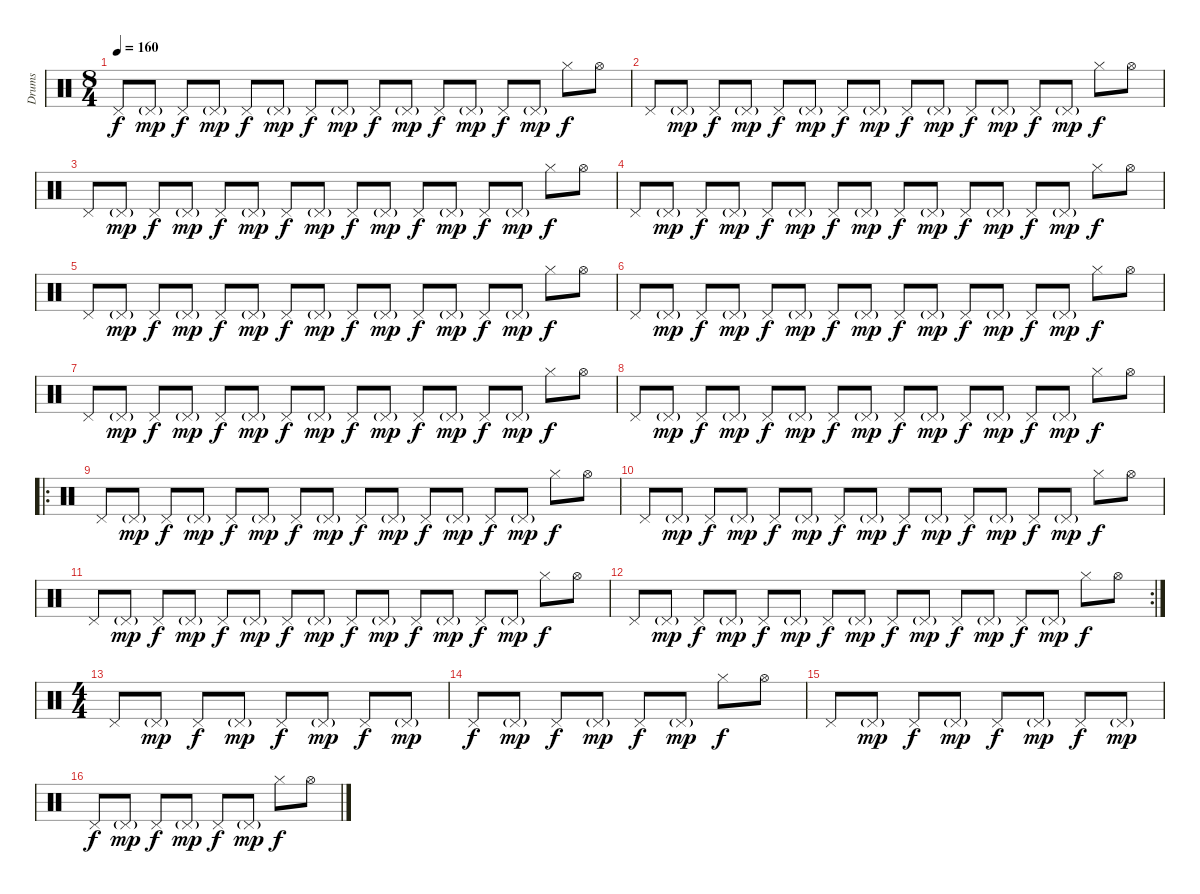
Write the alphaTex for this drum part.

\track ("Drums" "Drums") {instrument percussion}
\staff {score}
\articulation defaults
\ts (8 4)
\tempo 160
\clef neutral
\ks c "Pedal Hi-Hat (hit)".8{dy f} "Pedal Hi-Hat (hit)"{g}.8{dy mp} "Pedal Hi-Hat (hit)".8{dy f} "Pedal Hi-Hat (hit)"{g}.8{dy mp} "Pedal Hi-Hat (hit)".8{dy f} "Pedal Hi-Hat (hit)"{g}.8{dy mp} "Pedal Hi-Hat (hit)".8{dy f} "Pedal Hi-Hat (hit)"{g}.8{dy mp} "Pedal Hi-Hat (hit)".8{dy f} "Pedal Hi-Hat (hit)"{g}.8{dy mp} "Pedal Hi-Hat (hit)".8{dy f} "Pedal Hi-Hat (hit)"{g}.8{dy mp} "Pedal Hi-Hat (hit)".8{dy f} "Pedal Hi-Hat (hit)"{g}.8{dy mp} "Hi-Hat (closed)".8{dy f} "Hi-Hat (open)".8
|
"Pedal Hi-Hat (hit)".8 "Pedal Hi-Hat (hit)"{g}.8{dy mp} "Pedal Hi-Hat (hit)".8{dy f} "Pedal Hi-Hat (hit)"{g}.8{dy mp} "Pedal Hi-Hat (hit)".8{dy f} "Pedal Hi-Hat (hit)"{g}.8{dy mp} "Pedal Hi-Hat (hit)".8{dy f} "Pedal Hi-Hat (hit)"{g}.8{dy mp} "Pedal Hi-Hat (hit)".8{dy f} "Pedal Hi-Hat (hit)"{g}.8{dy mp} "Pedal Hi-Hat (hit)".8{dy f} "Pedal Hi-Hat (hit)"{g}.8{dy mp} "Pedal Hi-Hat (hit)".8{dy f} "Pedal Hi-Hat (hit)"{g}.8{dy mp} "Hi-Hat (closed)".8{dy f} "Hi-Hat (open)".8 |
"Pedal Hi-Hat (hit)".8 "Pedal Hi-Hat (hit)"{g}.8{dy mp} "Pedal Hi-Hat (hit)".8{dy f} "Pedal Hi-Hat (hit)"{g}.8{dy mp} "Pedal Hi-Hat (hit)".8{dy f} "Pedal Hi-Hat (hit)"{g}.8{dy mp} "Pedal Hi-Hat (hit)".8{dy f} "Pedal Hi-Hat (hit)"{g}.8{dy mp} "Pedal Hi-Hat (hit)".8{dy f} "Pedal Hi-Hat (hit)"{g}.8{dy mp} "Pedal Hi-Hat (hit)".8{dy f} "Pedal Hi-Hat (hit)"{g}.8{dy mp} "Pedal Hi-Hat (hit)".8{dy f} "Pedal Hi-Hat (hit)"{g}.8{dy mp} "Hi-Hat (closed)".8{dy f} "Hi-Hat (open)".8 |
"Pedal Hi-Hat (hit)".8 "Pedal Hi-Hat (hit)"{g}.8{dy mp} "Pedal Hi-Hat (hit)".8{dy f} "Pedal Hi-Hat (hit)"{g}.8{dy mp} "Pedal Hi-Hat (hit)".8{dy f} "Pedal Hi-Hat (hit)"{g}.8{dy mp} "Pedal Hi-Hat (hit)".8{dy f} "Pedal Hi-Hat (hit)"{g}.8{dy mp} "Pedal Hi-Hat (hit)".8{dy f} "Pedal Hi-Hat (hit)"{g}.8{dy mp} "Pedal Hi-Hat (hit)".8{dy f} "Pedal Hi-Hat (hit)"{g}.8{dy mp} "Pedal Hi-Hat (hit)".8{dy f} "Pedal Hi-Hat (hit)"{g}.8{dy mp} "Hi-Hat (closed)".8{dy f} "Hi-Hat (open)".8 |
"Pedal Hi-Hat (hit)".8 "Pedal Hi-Hat (hit)"{g}.8{dy mp} "Pedal Hi-Hat (hit)".8{dy f} "Pedal Hi-Hat (hit)"{g}.8{dy mp} "Pedal Hi-Hat (hit)".8{dy f} "Pedal Hi-Hat (hit)"{g}.8{dy mp} "Pedal Hi-Hat (hit)".8{dy f} "Pedal Hi-Hat (hit)"{g}.8{dy mp} "Pedal Hi-Hat (hit)".8{dy f} "Pedal Hi-Hat (hit)"{g}.8{dy mp} "Pedal Hi-Hat (hit)".8{dy f} "Pedal Hi-Hat (hit)"{g}.8{dy mp} "Pedal Hi-Hat (hit)".8{dy f} "Pedal Hi-Hat (hit)"{g}.8{dy mp} "Hi-Hat (closed)".8{dy f} "Hi-Hat (open)".8 |
"Pedal Hi-Hat (hit)".8 "Pedal Hi-Hat (hit)"{g}.8{dy mp} "Pedal Hi-Hat (hit)".8{dy f} "Pedal Hi-Hat (hit)"{g}.8{dy mp} "Pedal Hi-Hat (hit)".8{dy f} "Pedal Hi-Hat (hit)"{g}.8{dy mp} "Pedal Hi-Hat (hit)".8{dy f} "Pedal Hi-Hat (hit)"{g}.8{dy mp} "Pedal Hi-Hat (hit)".8{dy f} "Pedal Hi-Hat (hit)"{g}.8{dy mp} "Pedal Hi-Hat (hit)".8{dy f} "Pedal Hi-Hat (hit)"{g}.8{dy mp} "Pedal Hi-Hat (hit)".8{dy f} "Pedal Hi-Hat (hit)"{g}.8{dy mp} "Hi-Hat (closed)".8{dy f} "Hi-Hat (open)".8 |
"Pedal Hi-Hat (hit)".8 "Pedal Hi-Hat (hit)"{g}.8{dy mp} "Pedal Hi-Hat (hit)".8{dy f} "Pedal Hi-Hat (hit)"{g}.8{dy mp} "Pedal Hi-Hat (hit)".8{dy f} "Pedal Hi-Hat (hit)"{g}.8{dy mp} "Pedal Hi-Hat (hit)".8{dy f} "Pedal Hi-Hat (hit)"{g}.8{dy mp} "Pedal Hi-Hat (hit)".8{dy f} "Pedal Hi-Hat (hit)"{g}.8{dy mp} "Pedal Hi-Hat (hit)".8{dy f} "Pedal Hi-Hat (hit)"{g}.8{dy mp} "Pedal Hi-Hat (hit)".8{dy f} "Pedal Hi-Hat (hit)"{g}.8{dy mp} "Hi-Hat (closed)".8{dy f} "Hi-Hat (open)".8 |
"Pedal Hi-Hat (hit)".8 "Pedal Hi-Hat (hit)"{g}.8{dy mp} "Pedal Hi-Hat (hit)".8{dy f} "Pedal Hi-Hat (hit)"{g}.8{dy mp} "Pedal Hi-Hat (hit)".8{dy f} "Pedal Hi-Hat (hit)"{g}.8{dy mp} "Pedal Hi-Hat (hit)".8{dy f} "Pedal Hi-Hat (hit)"{g}.8{dy mp} "Pedal Hi-Hat (hit)".8{dy f} "Pedal Hi-Hat (hit)"{g}.8{dy mp} "Pedal Hi-Hat (hit)".8{dy f} "Pedal Hi-Hat (hit)"{g}.8{dy mp} "Pedal Hi-Hat (hit)".8{dy f} "Pedal Hi-Hat (hit)"{g}.8{dy mp} "Hi-Hat (closed)".8{dy f} "Hi-Hat (open)".8 |
\ro "Pedal Hi-Hat (hit)".8 "Pedal Hi-Hat (hit)"{g}.8{dy mp} "Pedal Hi-Hat (hit)".8{dy f} "Pedal Hi-Hat (hit)"{g}.8{dy mp} "Pedal Hi-Hat (hit)".8{dy f} "Pedal Hi-Hat (hit)"{g}.8{dy mp} "Pedal Hi-Hat (hit)".8{dy f} "Pedal Hi-Hat (hit)"{g}.8{dy mp} "Pedal Hi-Hat (hit)".8{dy f} "Pedal Hi-Hat (hit)"{g}.8{dy mp} "Pedal Hi-Hat (hit)".8{dy f} "Pedal Hi-Hat (hit)"{g}.8{dy mp} "Pedal Hi-Hat (hit)".8{dy f} "Pedal Hi-Hat (hit)"{g}.8{dy mp} "Hi-Hat (closed)".8{dy f} "Hi-Hat (open)".8
|
"Pedal Hi-Hat (hit)".8 "Pedal Hi-Hat (hit)"{g}.8{dy mp} "Pedal Hi-Hat (hit)".8{dy f} "Pedal Hi-Hat (hit)"{g}.8{dy mp} "Pedal Hi-Hat (hit)".8{dy f} "Pedal Hi-Hat (hit)"{g}.8{dy mp} "Pedal Hi-Hat (hit)".8{dy f} "Pedal Hi-Hat (hit)"{g}.8{dy mp} "Pedal Hi-Hat (hit)".8{dy f} "Pedal Hi-Hat (hit)"{g}.8{dy mp} "Pedal Hi-Hat (hit)".8{dy f} "Pedal Hi-Hat (hit)"{g}.8{dy mp} "Pedal Hi-Hat (hit)".8{dy f} "Pedal Hi-Hat (hit)"{g}.8{dy mp} "Hi-Hat (closed)".8{dy f} "Hi-Hat (open)".8 |
"Pedal Hi-Hat (hit)".8 "Pedal Hi-Hat (hit)"{g}.8{dy mp} "Pedal Hi-Hat (hit)".8{dy f} "Pedal Hi-Hat (hit)"{g}.8{dy mp} "Pedal Hi-Hat (hit)".8{dy f} "Pedal Hi-Hat (hit)"{g}.8{dy mp} "Pedal Hi-Hat (hit)".8{dy f} "Pedal Hi-Hat (hit)"{g}.8{dy mp} "Pedal Hi-Hat (hit)".8{dy f} "Pedal Hi-Hat (hit)"{g}.8{dy mp} "Pedal Hi-Hat (hit)".8{dy f} "Pedal Hi-Hat (hit)"{g}.8{dy mp} "Pedal Hi-Hat (hit)".8{dy f} "Pedal Hi-Hat (hit)"{g}.8{dy mp} "Hi-Hat (closed)".8{dy f} "Hi-Hat (open)".8 |
\rc 2 "Pedal Hi-Hat (hit)".8 "Pedal Hi-Hat (hit)"{g}.8{dy mp} "Pedal Hi-Hat (hit)".8{dy f} "Pedal Hi-Hat (hit)"{g}.8{dy mp} "Pedal Hi-Hat (hit)".8{dy f} "Pedal Hi-Hat (hit)"{g}.8{dy mp} "Pedal Hi-Hat (hit)".8{dy f} "Pedal Hi-Hat (hit)"{g}.8{dy mp} "Pedal Hi-Hat (hit)".8{dy f} "Pedal Hi-Hat (hit)"{g}.8{dy mp} "Pedal Hi-Hat (hit)".8{dy f} "Pedal Hi-Hat (hit)"{g}.8{dy mp} "Pedal Hi-Hat (hit)".8{dy f} "Pedal Hi-Hat (hit)"{g}.8{dy mp} "Hi-Hat (closed)".8{dy f} "Hi-Hat (open)".8
|
\ts (4 4)
"Pedal Hi-Hat (hit)".8 "Pedal Hi-Hat (hit)"{g}.8{dy mp} "Pedal Hi-Hat (hit)".8{dy f} "Pedal Hi-Hat (hit)"{g}.8{dy mp} "Pedal Hi-Hat (hit)".8{dy f} "Pedal Hi-Hat (hit)"{g}.8{dy mp} "Pedal Hi-Hat (hit)".8{dy f} "Pedal Hi-Hat (hit)"{g}.8{dy mp} |
"Pedal Hi-Hat (hit)".8{dy f} "Pedal Hi-Hat (hit)"{g}.8{dy mp} "Pedal Hi-Hat (hit)".8{dy f} "Pedal Hi-Hat (hit)"{g}.8{dy mp} "Pedal Hi-Hat (hit)".8{dy f} "Pedal Hi-Hat (hit)"{g}.8{dy mp} "Hi-Hat (closed)".8{dy f} "Hi-Hat (open)".8 |
"Pedal Hi-Hat (hit)".8 "Pedal Hi-Hat (hit)"{g}.8{dy mp} "Pedal Hi-Hat (hit)".8{dy f} "Pedal Hi-Hat (hit)"{g}.8{dy mp} "Pedal Hi-Hat (hit)".8{dy f} "Pedal Hi-Hat (hit)"{g}.8{dy mp} "Pedal Hi-Hat (hit)".8{dy f} "Pedal Hi-Hat (hit)"{g}.8{dy mp} |
"Pedal Hi-Hat (hit)".8{dy f} "Pedal Hi-Hat (hit)"{g}.8{dy mp} "Pedal Hi-Hat (hit)".8{dy f} "Pedal Hi-Hat (hit)"{g}.8{dy mp} "Pedal Hi-Hat (hit)".8{dy f} "Pedal Hi-Hat (hit)"{g}.8{dy mp} "Hi-Hat (closed)".8{dy f} "Hi-Hat (open)".8
